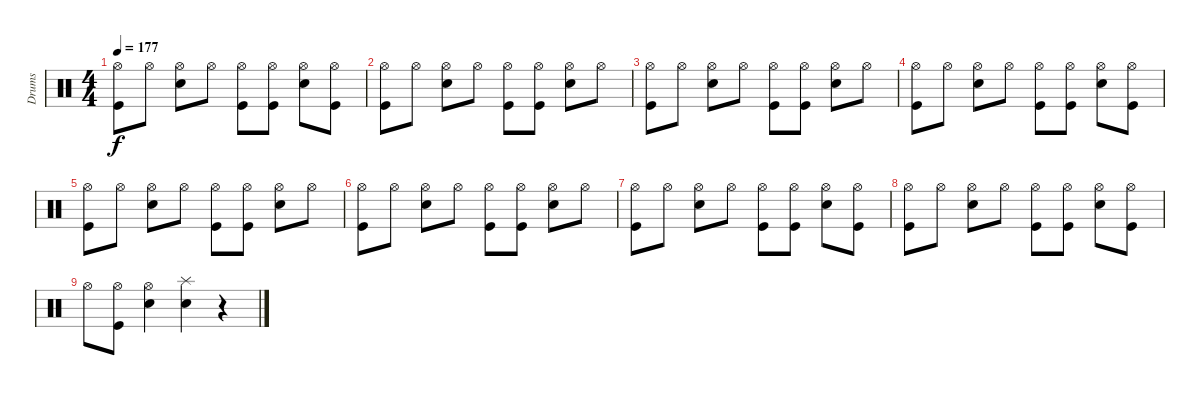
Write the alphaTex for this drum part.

\track ("Drums" "Drums") {instrument percussion}
\staff {score}
\articulation defaults
\ts (4 4)
\tempo 177
\clef neutral
\ks c
("Hi-Hat (open)" "Kick (hit)").8{dy f} "Hi-Hat (open)".8 ("Hi-Hat (open)" "Snare (hit) 2").8 "Hi-Hat (open)".8 ("Hi-Hat (open)" "Kick (hit)").8 ("Hi-Hat (open)" "Kick (hit)").8 ("Hi-Hat (open)" "Snare (hit) 2").8 ("Hi-Hat (open)" "Kick (hit)").8 |
("Hi-Hat (open)" "Kick (hit)").8 "Hi-Hat (open)".8 ("Hi-Hat (open)" "Snare (hit) 2").8 "Hi-Hat (open)".8 ("Hi-Hat (open)" "Kick (hit)").8 ("Hi-Hat (open)" "Kick (hit)").8 ("Hi-Hat (open)" "Snare (hit) 2").8 "Hi-Hat (open)".8 |
("Hi-Hat (open)" "Kick (hit)").8 "Hi-Hat (open)".8 ("Hi-Hat (open)" "Snare (hit) 2").8 "Hi-Hat (open)".8 ("Hi-Hat (open)" "Kick (hit)").8 ("Hi-Hat (open)" "Kick (hit)").8 ("Hi-Hat (open)" "Snare (hit) 2").8 "Hi-Hat (open)".8 |
("Hi-Hat (open)" "Kick (hit)").8 "Hi-Hat (open)".8 ("Hi-Hat (open)" "Snare (hit) 2").8 "Hi-Hat (open)".8 ("Hi-Hat (open)" "Kick (hit)").8 ("Hi-Hat (open)" "Kick (hit)").8 ("Hi-Hat (open)" "Snare (hit) 2").8 ("Hi-Hat (open)" "Kick (hit)").8 |
("Hi-Hat (open)" "Kick (hit)").8 "Hi-Hat (open)".8 ("Hi-Hat (open)" "Snare (hit) 2").8 "Hi-Hat (open)".8 ("Hi-Hat (open)" "Kick (hit)").8 ("Hi-Hat (open)" "Kick (hit)").8 ("Hi-Hat (open)" "Snare (hit) 2").8 "Hi-Hat (open)".8 |
("Hi-Hat (open)" "Kick (hit)").8 "Hi-Hat (open)".8 ("Hi-Hat (open)" "Snare (hit) 2").8 "Hi-Hat (open)".8 ("Hi-Hat (open)" "Kick (hit)").8 ("Hi-Hat (open)" "Kick (hit)").8 ("Hi-Hat (open)" "Snare (hit) 2").8 "Hi-Hat (open)".8 |
("Hi-Hat (open)" "Kick (hit)").8 "Hi-Hat (open)".8 ("Hi-Hat (open)" "Snare (hit) 2").8 "Hi-Hat (open)".8 ("Hi-Hat (open)" "Kick (hit)").8 ("Hi-Hat (open)" "Kick (hit)").8 ("Hi-Hat (open)" "Snare (hit) 2").8 ("Hi-Hat (open)" "Kick (hit)").8 |
("Hi-Hat (open)" "Kick (hit)").8 "Hi-Hat (open)".8 ("Hi-Hat (open)" "Snare (hit) 2").8 "Hi-Hat (open)".8 ("Hi-Hat (open)" "Kick (hit)").8 ("Hi-Hat (open)" "Kick (hit)").8 ("Hi-Hat (open)" "Snare (hit) 2").8 ("Hi-Hat (open)" "Kick (hit)").8 |
"Hi-Hat (open)".8 ("Hi-Hat (open)" "Kick (hit)").8 ("Hi-Hat (open)" "Snare (hit) 2").4 ("Splash (hit)" "Snare (hit) 2").4 r.4
